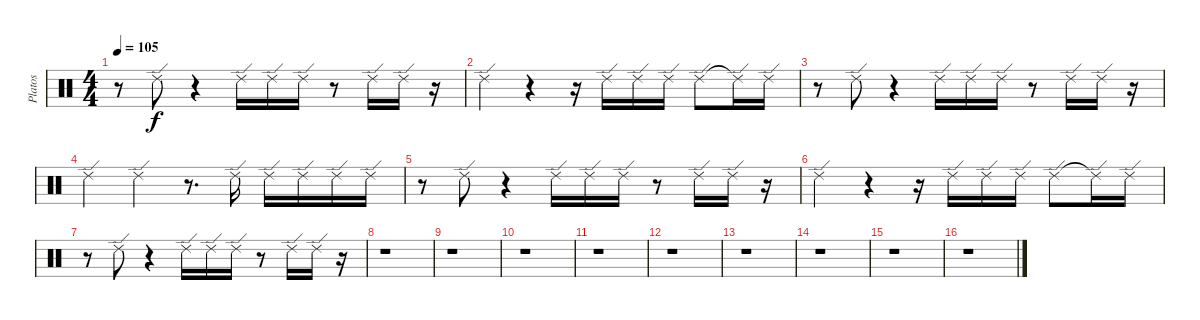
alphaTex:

\track ("Platos" "Platos") {instrument percussion}
\staff {score}
\articulation defaults
\ts (4 4)
\tempo 105
\clef neutral
\ks c
r.8{dy f} "Ride (edge) 2".8 r.4 "Ride (edge) 2".16 "Ride (edge) 2".16 "Ride (edge) 2".16 r.8 "Ride (edge) 2".16 "Ride (edge) 2".16 r.16 |
"Ride (edge) 2".4 r.4 r.16 "Ride (edge) 2".16 "Ride (edge) 2".16 "Ride (edge) 2".16 "Ride (edge) 2".8 "Ride (edge) 2"{t}.16 "Ride (edge) 2".16 |
r.8 "Ride (edge) 2".8 r.4 "Ride (edge) 2".16 "Ride (edge) 2".16 "Ride (edge) 2".16 r.8 "Ride (edge) 2".16 "Ride (edge) 2".16 r.16 |
"Ride (edge) 2".4 "Ride (edge) 2".4 r.8{d} "Ride (edge) 2".16 "Ride (edge) 2".16 "Ride (edge) 2".16 "Ride (edge) 2".16 "Ride (edge) 2".16 |
r.8 "Ride (edge) 2".8 r.4 "Ride (edge) 2".16 "Ride (edge) 2".16 "Ride (edge) 2".16 r.8 "Ride (edge) 2".16 "Ride (edge) 2".16 r.16 |
"Ride (edge) 2".4 r.4 r.16 "Ride (edge) 2".16 "Ride (edge) 2".16 "Ride (edge) 2".16 "Ride (edge) 2".8 "Ride (edge) 2"{t}.16 "Ride (edge) 2".16 |
r.8 "Ride (edge) 2".8 r.4 "Ride (edge) 2".16 "Ride (edge) 2".16 "Ride (edge) 2".16 r.8 "Ride (edge) 2".16 "Ride (edge) 2".16 r.16 |
r.1 |
r.1 |
r.1 |
r.1 |
r.1 |
r.1 |
r.1 |
r.1 |
r.1
